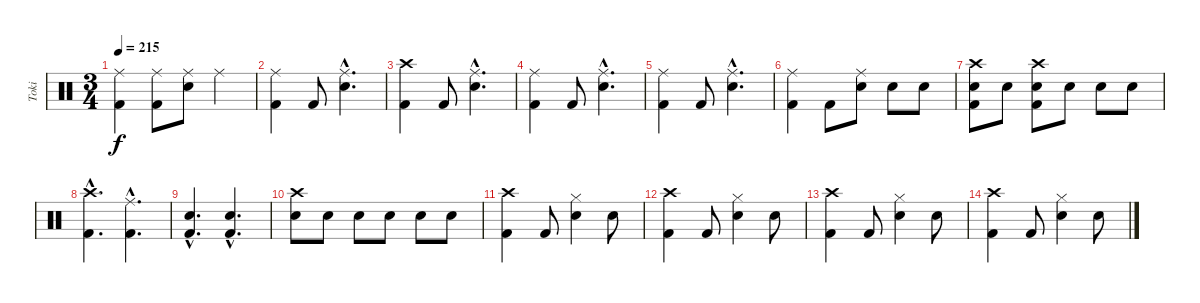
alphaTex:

\track ("Toki" "Toki") {instrument percussion}
\staff {score}
\articulation defaults
\ts (3 4)
\tempo 215
\clef neutral
\ks c
("Kick (hit) 2" "Ride (middle)").4{dy f} ("Kick (hit) 2" "Ride (middle)").8 ("Ride (middle)" "Snare (hit) 2").8 "Ride (middle)".4 |
("Kick (hit) 2" "Ride (middle)").4 "Kick (hit) 2".8 ("Ride (middle)"{hac} "Snare (hit) 2"{hac}).4{d} |
("Kick (hit) 2" "Crash high (hit)").4 "Kick (hit) 2".8 ("Ride (middle)"{hac} "Snare (hit) 2"{hac}).4{d} |
("Kick (hit) 2" "Ride (middle)").4 "Kick (hit) 2".8 ("Ride (middle)"{hac} "Snare (hit) 2"{hac}).4{d} |
("Kick (hit) 2" "Ride (middle)").4 "Kick (hit) 2".8 ("Ride (middle)"{hac} "Snare (hit) 2"{hac}).4{d} |
("Kick (hit) 2" "Ride (middle)").4 "Kick (hit) 2".8 ("Ride (middle)" "Snare (hit) 2").8 "Snare (hit) 2".8 "Snare (hit) 2".8 |
("Kick (hit) 2" "Crash high (hit)" "Snare (hit) 2").8 "Snare (hit) 2".8 ("Kick (hit) 2" "Crash high (hit)" "Snare (hit) 2").8 "Snare (hit) 2".8 "Snare (hit) 2".8 "Snare (hit) 2".8 |
("Crash high (hit)"{hac} "Kick (hit) 2"{hac}).4{d} ("Ride (middle)"{hac} "Kick (hit) 2"{hac}).4{d} |
("Kick (hit) 2"{hac} "Snare (hit) 2"{hac}).4{d} ("Kick (hit) 2"{hac} "Snare (hit) 2"{hac}).4{d} |
("Crash high (hit)" "Snare (hit) 2").8 "Snare (hit) 2".8 "Snare (hit) 2".8 "Snare (hit) 2".8 "Snare (hit) 2".8 "Snare (hit) 2".8 |
("Kick (hit) 2" "Crash high (hit)").4 "Kick (hit) 2".8 ("Hi-Hat (closed)" "Snare (hit) 2").4 "Snare (hit) 2".8 |
("Kick (hit) 2" "Crash high (hit)").4 "Kick (hit) 2".8 ("Hi-Hat (closed)" "Snare (hit) 2").4 "Snare (hit) 2".8 |
("Kick (hit) 2" "Crash high (hit)").4 "Kick (hit) 2".8 ("Hi-Hat (closed)" "Snare (hit) 2").4 "Snare (hit) 2".8 |
("Kick (hit) 2" "Crash high (hit)").4 "Kick (hit) 2".8 ("Hi-Hat (closed)" "Snare (hit) 2").4 "Snare (hit) 2".8
